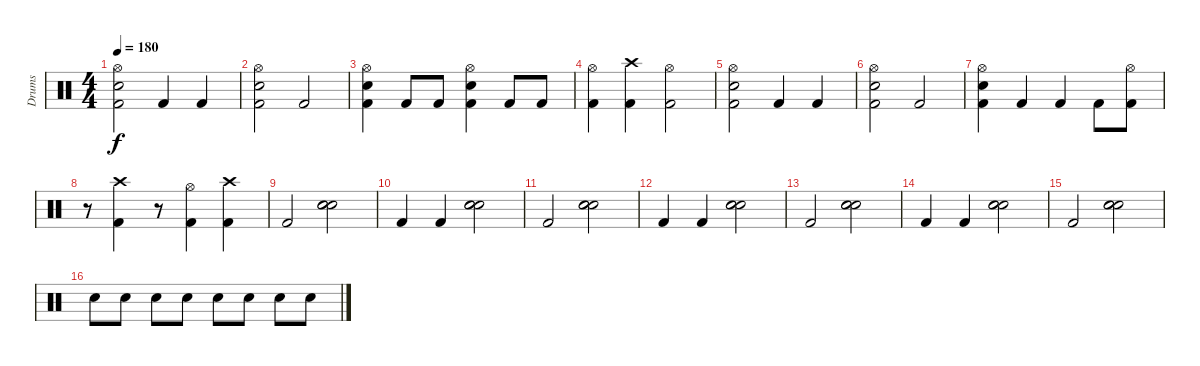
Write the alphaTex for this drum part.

\track ("Drums" "Drums") {instrument percussion}
\staff {score}
\articulation defaults
\ts (4 4)
\tempo 180
\clef neutral
\ks c
("Kick (hit) 2" "Snare (hit) 2" "Hi-Hat (open)").2{dy f} "Kick (hit) 2".4 "Kick (hit) 2".4 |
("Kick (hit) 2" "Snare (hit) 2" "Hi-Hat (open)").2 "Kick (hit) 2".2 |
("Kick (hit) 2" "Snare (hit) 2" "Hi-Hat (open)").4 "Kick (hit) 2".8 "Kick (hit) 2".8 ("Kick (hit) 2" "Snare (hit) 2" "Hi-Hat (open)").4 "Kick (hit) 2".8 "Kick (hit) 2".8 |
("Kick (hit) 2" "Hi-Hat (open)").4 ("Kick (hit) 2" "Crash high (hit)").4 ("Kick (hit) 2" "Hi-Hat (open)").2 |
("Kick (hit) 2" "Snare (hit) 2" "Hi-Hat (open)").2 "Kick (hit) 2".4 "Kick (hit) 2".4 |
("Kick (hit) 2" "Snare (hit) 2" "Hi-Hat (open)").2 "Kick (hit) 2".2 |
("Kick (hit) 2" "Snare (hit) 2" "Hi-Hat (open)").4 "Kick (hit) 2".4 "Kick (hit) 2".4 "Kick (hit) 2".8 ("Kick (hit) 2" "Hi-Hat (open)").8 |
r.8 ("Kick (hit) 2" "Crash high (hit)").4 r.8 ("Kick (hit) 2" "Hi-Hat (open)").4 ("Kick (hit) 2" "Crash high (hit)").4 |
"Kick (hit) 2".2 ("Snare (hit) 2" "Electric Snare (hit)" "Snare (hit)").2 |
"Kick (hit) 2".4 "Kick (hit) 2".4 ("Snare (hit) 2" "Electric Snare (hit)" "Snare (hit)").2 |
"Kick (hit) 2".2 ("Snare (hit) 2" "Electric Snare (hit)" "Snare (hit)").2 |
"Kick (hit) 2".4 "Kick (hit) 2".4 ("Snare (hit) 2" "Electric Snare (hit)" "Snare (hit)").2 |
"Kick (hit) 2".2 ("Snare (hit) 2" "Electric Snare (hit)" "Snare (hit)").2 |
"Kick (hit) 2".4 "Kick (hit) 2".4 ("Snare (hit) 2" "Electric Snare (hit)" "Snare (hit)").2 |
"Kick (hit) 2".2 ("Snare (hit) 2" "Electric Snare (hit)" "Snare (hit)").2 |
"Snare (hit) 2".8 "Snare (hit) 2".8 "Snare (hit) 2".8 "Snare (hit) 2".8 "Snare (hit) 2".8 "Snare (hit) 2".8 "Snare (hit) 2".8 "Snare (hit) 2".8
